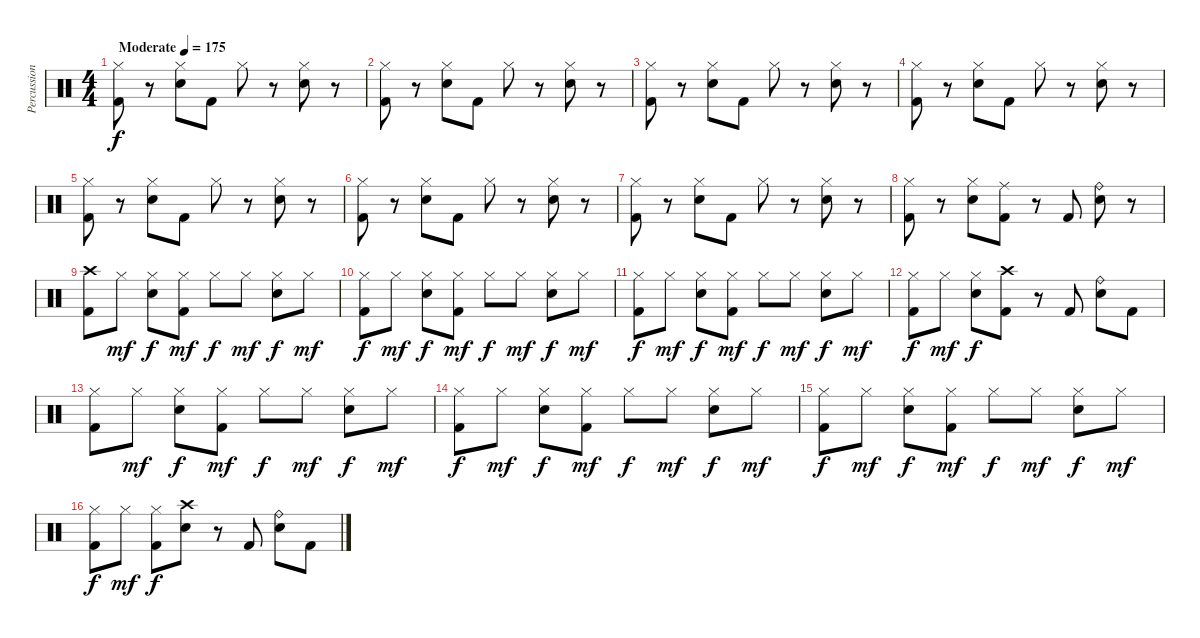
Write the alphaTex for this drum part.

\track ("Percussion" "Percussion") {instrument percussion}
\staff {score}
\articulation defaults
\ts (4 4)
\tempo (175 "Moderate")
\clef neutral
\ks c
("Hi-Hat (closed)" "Kick (hit) 2").8{dy f} r.8 ("Hi-Hat (closed)" "Electric Snare (hit)").8 "Kick (hit) 2".8 "Hi-Hat (closed)".8 r.8 ("Hi-Hat (closed)" "Electric Snare (hit)").8 r.8 |
("Hi-Hat (closed)" "Kick (hit) 2").8 r.8 ("Hi-Hat (closed)" "Electric Snare (hit)").8 "Kick (hit) 2".8 "Hi-Hat (closed)".8 r.8 ("Hi-Hat (closed)" "Electric Snare (hit)").8 r.8 |
("Hi-Hat (closed)" "Kick (hit) 2").8 r.8 ("Hi-Hat (closed)" "Electric Snare (hit)").8 "Kick (hit) 2".8 "Hi-Hat (closed)".8 r.8 ("Hi-Hat (closed)" "Electric Snare (hit)").8 r.8 |
("Hi-Hat (closed)" "Kick (hit) 2").8 r.8 ("Hi-Hat (closed)" "Electric Snare (hit)").8 "Kick (hit) 2".8 "Hi-Hat (closed)".8 r.8 ("Hi-Hat (closed)" "Electric Snare (hit)").8 r.8 |
("Hi-Hat (closed)" "Kick (hit) 2").8 r.8 ("Hi-Hat (closed)" "Electric Snare (hit)").8 "Kick (hit) 2".8 "Hi-Hat (closed)".8 r.8 ("Hi-Hat (closed)" "Electric Snare (hit)").8 r.8 |
("Hi-Hat (closed)" "Kick (hit) 2").8 r.8 ("Hi-Hat (closed)" "Electric Snare (hit)").8 "Kick (hit) 2".8 "Hi-Hat (closed)".8 r.8 ("Hi-Hat (closed)" "Electric Snare (hit)").8 r.8 |
("Hi-Hat (closed)" "Kick (hit) 2").8 r.8 ("Hi-Hat (closed)" "Electric Snare (hit)").8 "Kick (hit) 2".8 "Hi-Hat (closed)".8 r.8 ("Hi-Hat (closed)" "Electric Snare (hit)").8 r.8 |
("Hi-Hat (closed)" "Kick (hit) 2").8 r.8 ("Hi-Hat (closed)" "Electric Snare (hit)").8 ("Ride (middle)" "Kick (hit) 2").8 r.8 "Kick (hit) 2".8 ("Ride (bell)" "Electric Snare (hit)").8 r.8 |
("Crash high (hit)" "Kick (hit) 2").8 "Hi-Hat (closed)".8{dy mf} ("Hi-Hat (closed)" "Electric Snare (hit)").8{dy f} ("Hi-Hat (closed)" "Kick (hit) 2").8{dy mf} "Hi-Hat (closed)".8{dy f} "Hi-Hat (closed)".8{dy mf} ("Hi-Hat (closed)" "Electric Snare (hit)").8{dy f} "Hi-Hat (closed)".8{dy mf} |
("Hi-Hat (closed)" "Kick (hit) 2").8{dy f} "Hi-Hat (closed)".8{dy mf} ("Hi-Hat (closed)" "Electric Snare (hit)").8{dy f} ("Hi-Hat (closed)" "Kick (hit) 2").8{dy mf} "Hi-Hat (closed)".8{dy f} "Hi-Hat (closed)".8{dy mf} ("Hi-Hat (closed)" "Electric Snare (hit)").8{dy f} "Hi-Hat (closed)".8{dy mf} |
("Hi-Hat (closed)" "Kick (hit) 2").8{dy f} "Hi-Hat (closed)".8{dy mf} ("Hi-Hat (closed)" "Electric Snare (hit)").8{dy f} ("Hi-Hat (closed)" "Kick (hit) 2").8{dy mf} "Hi-Hat (closed)".8{dy f} "Hi-Hat (closed)".8{dy mf} ("Hi-Hat (closed)" "Electric Snare (hit)").8{dy f} "Hi-Hat (closed)".8{dy mf} |
("Hi-Hat (closed)" "Kick (hit) 2").8{dy f} "Hi-Hat (closed)".8{dy mf} ("Hi-Hat (closed)" "Electric Snare (hit)").8{dy f} ("Crash high (hit)" "Kick (hit) 2").8 r.8 "Kick (hit) 2".8 ("Ride (bell)" "Electric Snare (hit)").8 "Kick (hit) 2".8 |
("Hi-Hat (closed)" "Kick (hit) 2").8 "Hi-Hat (closed)".8{dy mf} ("Hi-Hat (closed)" "Electric Snare (hit)").8{dy f} ("Hi-Hat (closed)" "Kick (hit) 2").8{dy mf} "Hi-Hat (closed)".8{dy f} "Hi-Hat (closed)".8{dy mf} ("Hi-Hat (closed)" "Electric Snare (hit)").8{dy f} "Hi-Hat (closed)".8{dy mf} |
("Hi-Hat (closed)" "Kick (hit) 2").8{dy f} "Hi-Hat (closed)".8{dy mf} ("Hi-Hat (closed)" "Electric Snare (hit)").8{dy f} ("Hi-Hat (closed)" "Kick (hit) 2").8{dy mf} "Hi-Hat (closed)".8{dy f} "Hi-Hat (closed)".8{dy mf} ("Hi-Hat (closed)" "Electric Snare (hit)").8{dy f} "Hi-Hat (closed)".8{dy mf} |
("Hi-Hat (closed)" "Kick (hit) 2").8{dy f} "Hi-Hat (closed)".8{dy mf} ("Hi-Hat (closed)" "Electric Snare (hit)").8{dy f} ("Hi-Hat (closed)" "Kick (hit) 2").8{dy mf} "Hi-Hat (closed)".8{dy f} "Hi-Hat (closed)".8{dy mf} ("Hi-Hat (closed)" "Electric Snare (hit)").8{dy f} "Hi-Hat (closed)".8{dy mf} |
("Hi-Hat (closed)" "Kick (hit) 2").8{dy f} "Hi-Hat (closed)".8{dy mf} ("Hi-Hat (closed)" "Kick (hit) 2").8{dy f} ("Crash high (hit)" "Electric Snare (hit)").8 r.8 "Kick (hit) 2".8 ("Ride (bell)" "Electric Snare (hit)").8 "Kick (hit) 2".8
